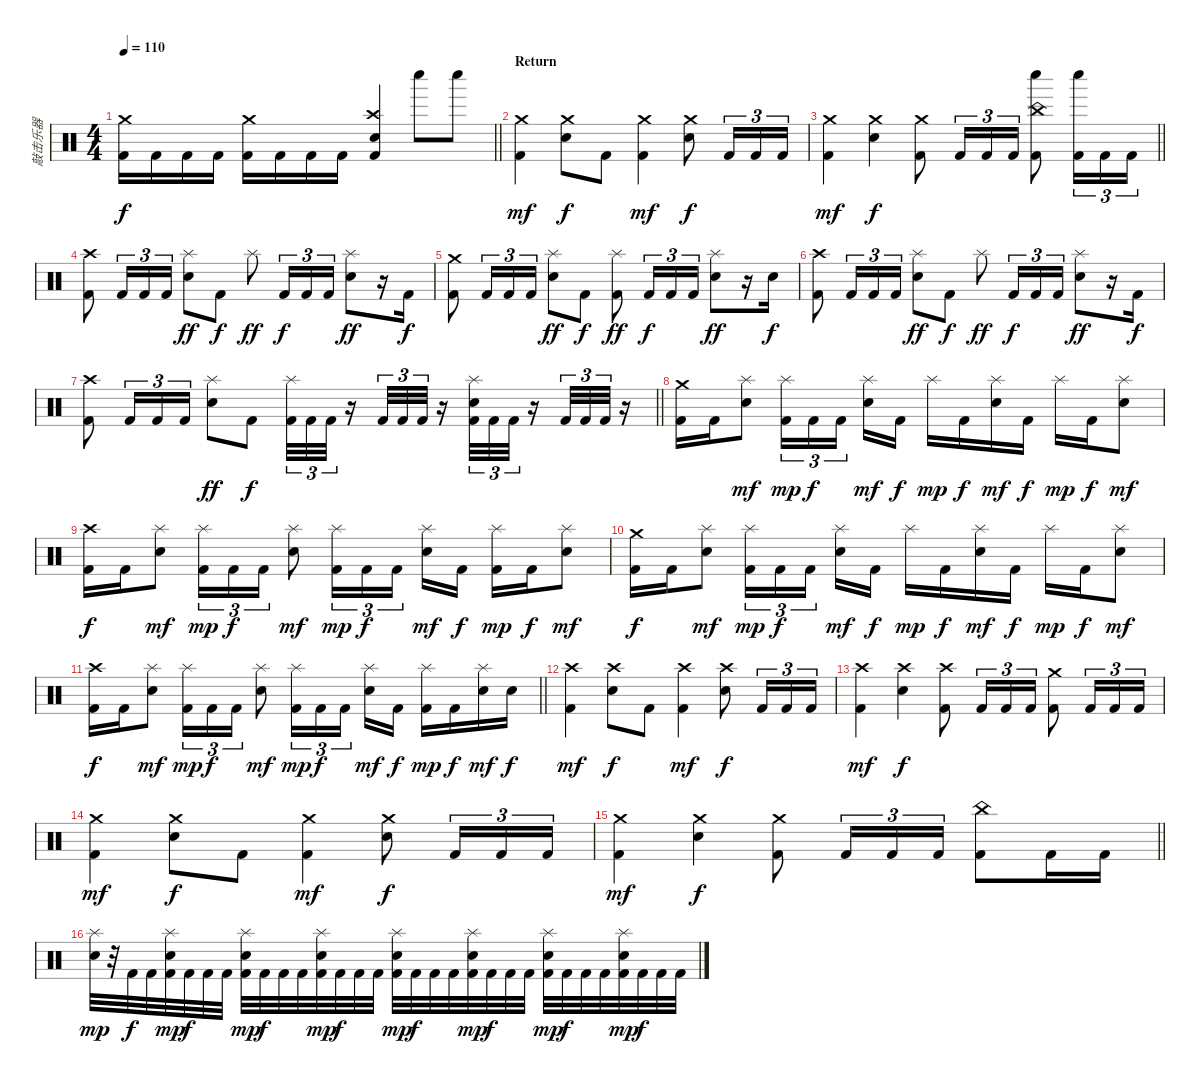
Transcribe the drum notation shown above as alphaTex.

\track ("敲击乐器" "敲击乐器") {instrument percussion}
\staff {score}
\articulation defaults
\ts (4 4)
\tempo 110
\clef neutral
\barLineRight lightlight
\ks c
("Crash medium (hit)" "Kick (hit) 2").16{dy f} "Kick (hit) 2".16 "Kick (hit) 2".16 "Kick (hit) 2".16 ("Crash medium (hit)" "Kick (hit) 2").16 "Kick (hit) 2".16 "Kick (hit) 2".16 "Kick (hit) 2".16 ("Crash high (hit)" "Snare (hit) 2" "Kick (hit) 2").4 "Whistle low (hit)".8 "Whistle low (hit)".8 |
\section ("" "Return")
("Crash medium (hit)" "Kick (hit) 2").4{dy mf} ("Crash medium (hit)" "Snare (hit) 2").8{dy f} "Kick (hit) 2".8 ("Crash medium (hit)" "Kick (hit) 2").4{dy mf} ("Crash medium (hit)" "Snare (hit) 2").8{dy f} "Kick (hit) 2".16{tu (3 2)} "Kick (hit) 2".16{tu (3 2)} "Kick (hit) 2".16{tu (3 2)} |
\barLineRight lightlight
("Crash medium (hit)" "Kick (hit) 2").4{dy mf} ("Crash medium (hit)" "Snare (hit) 2").4{dy f} ("Crash medium (hit)" "Kick (hit) 2").8 "Kick (hit) 2".16{tu (3 2)} "Kick (hit) 2".16{tu (3 2)} "Kick (hit) 2".16{tu (3 2)} ("China (hit)" "Whistle low (hit)" "Kick (hit) 2").8 ("Whistle low (hit)" "Kick (hit) 2").16{tu (3 2)} "Kick (hit) 2".16{tu (3 2)} "Kick (hit) 2".16{tu (3 2)} |
("Crash high (hit)" "Kick (hit) 2").8 "Kick (hit) 2".16{tu (3 2)} "Kick (hit) 2".16{tu (3 2)} "Kick (hit) 2".16{tu (3 2)} ("Splash (hit)" "Snare (hit) 2").8{dy ff} "Kick (hit) 2".8{dy f} "Splash (hit)".8{dy ff} "Kick (hit) 2".16{tu (3 2) dy f} "Kick (hit) 2".16{tu (3 2)} "Kick (hit) 2".16{tu (3 2)} ("Splash (hit)" "Snare (hit) 2").8{dy ff} r.16 "Kick (hit) 2".16{dy f} |
("Crash medium (hit)" "Kick (hit) 2").8 "Kick (hit) 2".16{tu (3 2)} "Kick (hit) 2".16{tu (3 2)} "Kick (hit) 2".16{tu (3 2)} ("Splash (hit)" "Snare (hit) 2").8{dy ff} "Kick (hit) 2".8{dy f} ("Splash (hit)" "Kick (hit) 2").8{dy ff} "Kick (hit) 2".16{tu (3 2) dy f} "Kick (hit) 2".16{tu (3 2)} "Kick (hit) 2".16{tu (3 2)} ("Splash (hit)" "Snare (hit) 2").8{dy ff} r.16 "Snare (hit) 2".16{dy f} |
("Crash high (hit)" "Kick (hit) 2").8 "Kick (hit) 2".16{tu (3 2)} "Kick (hit) 2".16{tu (3 2)} "Kick (hit) 2".16{tu (3 2)} ("Splash (hit)" "Snare (hit) 2").8{dy ff} "Kick (hit) 2".8{dy f} "Splash (hit)".8{dy ff} "Kick (hit) 2".16{tu (3 2) dy f} "Kick (hit) 2".16{tu (3 2)} "Kick (hit) 2".16{tu (3 2)} ("Splash (hit)" "Snare (hit) 2").8{dy ff} r.16 "Kick (hit) 2".16{dy f} |
\barLineRight lightlight
("Crash high (hit)" "Kick (hit) 2").8 "Kick (hit) 2".16{tu (3 2)} "Kick (hit) 2".16{tu (3 2)} "Kick (hit) 2".16{tu (3 2)} ("Splash (hit)" "Snare (hit) 2").8{dy ff} "Kick (hit) 2".8{dy f} ("Splash (hit)" "Kick (hit) 2").32{tu (3 2)} "Kick (hit) 2".32{tu (3 2)} "Kick (hit) 2".32{tu (3 2)} r.16 "Kick (hit) 2".32{tu (3 2)} "Kick (hit) 2".32{tu (3 2)} "Kick (hit) 2".32{tu (3 2)} r.16 ("Splash (hit)" "Snare (hit) 2" "Kick (hit) 2").32{tu (3 2)} "Kick (hit) 2".32{tu (3 2)} "Kick (hit) 2".32{tu (3 2)} r.16 "Kick (hit) 2".32{tu (3 2)} "Kick (hit) 2".32{tu (3 2)} "Kick (hit) 2".32{tu (3 2)} r.16 |
("Crash medium (hit)" "Kick (hit) 2").16 "Kick (hit) 2".16 ("Splash (hit)" "Snare (hit) 2").8{dy mf} ("Splash (hit)" "Kick (hit) 2").16{tu (3 2) dy mp} "Kick (hit) 2".16{tu (3 2) dy f} "Kick (hit) 2".16{tu (3 2) beam splitsecondary} ("Splash (hit)" "Snare (hit) 2").16{dy mf} "Kick (hit) 2".16{dy f} "Splash (hit)".16{dy mp} "Kick (hit) 2".16{dy f} ("Splash (hit)" "Snare (hit) 2").16{dy mf} "Kick (hit) 2".16{dy f} "Splash (hit)".16{dy mp} "Kick (hit) 2".16{dy f} ("Splash (hit)" "Snare (hit) 2").8{dy mf} |
("Crash high (hit)" "Kick (hit) 2").16{dy f} "Kick (hit) 2".16 ("Splash (hit)" "Snare (hit) 2").8{dy mf} ("Splash (hit)" "Kick (hit) 2").16{tu (3 2) dy mp} "Kick (hit) 2".16{tu (3 2) dy f} "Kick (hit) 2".16{tu (3 2)} ("Splash (hit)" "Snare (hit) 2").8{dy mf} ("Splash (hit)" "Kick (hit) 2").16{tu (3 2) dy mp} "Kick (hit) 2".16{tu (3 2) dy f} "Kick (hit) 2".16{tu (3 2) beam splitsecondary} ("Splash (hit)" "Snare (hit) 2").16{dy mf} "Kick (hit) 2".16{dy f} ("Splash (hit)" "Kick (hit) 2").16{dy mp} "Kick (hit) 2".16{dy f} ("Splash (hit)" "Snare (hit) 2").8{dy mf} |
("Crash medium (hit)" "Kick (hit) 2").16{dy f} "Kick (hit) 2".16 ("Splash (hit)" "Snare (hit) 2").8{dy mf} ("Splash (hit)" "Kick (hit) 2").16{tu (3 2) dy mp} "Kick (hit) 2".16{tu (3 2) dy f} "Kick (hit) 2".16{tu (3 2) beam splitsecondary} ("Splash (hit)" "Snare (hit) 2").16{dy mf} "Kick (hit) 2".16{dy f} "Splash (hit)".16{dy mp} "Kick (hit) 2".16{dy f} ("Splash (hit)" "Snare (hit) 2").16{dy mf} "Kick (hit) 2".16{dy f} "Splash (hit)".16{dy mp} "Kick (hit) 2".16{dy f} ("Splash (hit)" "Snare (hit) 2").8{dy mf} |
\barLineRight lightlight
("Crash high (hit)" "Kick (hit) 2").16{dy f} "Kick (hit) 2".16 ("Splash (hit)" "Snare (hit) 2").8{dy mf} ("Splash (hit)" "Kick (hit) 2").16{tu (3 2) dy mp} "Kick (hit) 2".16{tu (3 2) dy f} "Kick (hit) 2".16{tu (3 2)} ("Splash (hit)" "Snare (hit) 2").8{dy mf} ("Splash (hit)" "Kick (hit) 2").16{tu (3 2) dy mp} "Kick (hit) 2".16{tu (3 2) dy f} "Kick (hit) 2".16{tu (3 2) beam splitsecondary} ("Splash (hit)" "Snare (hit) 2").16{dy mf} "Kick (hit) 2".16{dy f} ("Splash (hit)" "Kick (hit) 2").16{dy mp} "Kick (hit) 2".16{dy f} ("Splash (hit)" "Snare (hit) 2").16{dy mf} "Snare (hit) 2".16{dy f} |
("Crash high (hit)" "Kick (hit) 2").4{dy mf} ("Crash high (hit)" "Snare (hit) 2").8{dy f} "Kick (hit) 2".8 ("Crash high (hit)" "Kick (hit) 2").4{dy mf} ("Crash high (hit)" "Snare (hit) 2").8{dy f} "Kick (hit) 2".16{tu (3 2)} "Kick (hit) 2".16{tu (3 2)} "Kick (hit) 2".16{tu (3 2)} |
("Crash high (hit)" "Kick (hit) 2").4{dy mf} ("Crash high (hit)" "Snare (hit) 2").4{dy f} ("Crash high (hit)" "Kick (hit) 2").8 "Kick (hit) 2".16{tu (3 2)} "Kick (hit) 2".16{tu (3 2)} "Kick (hit) 2".16{tu (3 2)} ("Crash medium (hit)" "Kick (hit) 2").8 "Kick (hit) 2".16{tu (3 2)} "Kick (hit) 2".16{tu (3 2)} "Kick (hit) 2".16{tu (3 2)} |
("Crash medium (hit)" "Kick (hit) 2").4{dy mf} ("Crash medium (hit)" "Snare (hit) 2").8{dy f} "Kick (hit) 2".8 ("Crash medium (hit)" "Kick (hit) 2").4{dy mf} ("Crash medium (hit)" "Snare (hit) 2").8{dy f} "Kick (hit) 2".16{tu (3 2)} "Kick (hit) 2".16{tu (3 2)} "Kick (hit) 2".16{tu (3 2)} |
\barLineRight lightlight
("Crash medium (hit)" "Kick (hit) 2").4{dy mf} ("Crash medium (hit)" "Snare (hit) 2").4{dy f} ("Crash medium (hit)" "Kick (hit) 2").8 "Kick (hit) 2".16{tu (3 2)} "Kick (hit) 2".16{tu (3 2)} "Kick (hit) 2".16{tu (3 2)} ("China (hit)" "Kick (hit) 2").8 "Kick (hit) 2".16 "Kick (hit) 2".16 |
("Splash (hit)" "Snare (hit) 2").32{dy mp} r.32 "Kick (hit) 2".32{dy f} "Kick (hit) 2".32 ("Splash (hit)" "Snare (hit) 2" "Kick (hit) 2").32{dy mp} "Kick (hit) 2".32{dy f} "Kick (hit) 2".32 "Kick (hit) 2".32 ("Splash (hit)" "Snare (hit) 2" "Kick (hit) 2").32{dy mp} "Kick (hit) 2".32{dy f} "Kick (hit) 2".32 "Kick (hit) 2".32 ("Splash (hit)" "Snare (hit) 2" "Kick (hit) 2").32{dy mp} "Kick (hit) 2".32{dy f} "Kick (hit) 2".32 "Kick (hit) 2".32 ("Splash (hit)" "Snare (hit) 2" "Kick (hit) 2").32{dy mp} "Kick (hit) 2".32{dy f} "Kick (hit) 2".32 "Kick (hit) 2".32 ("Splash (hit)" "Snare (hit) 2" "Kick (hit) 2").32{dy mp} "Kick (hit) 2".32{dy f} "Kick (hit) 2".32 "Kick (hit) 2".32 ("Splash (hit)" "Snare (hit) 2" "Kick (hit) 2").32{dy mp} "Kick (hit) 2".32{dy f} "Kick (hit) 2".32 "Kick (hit) 2".32 ("Splash (hit)" "Snare (hit) 2" "Kick (hit) 2").32{dy mp} "Kick (hit) 2".32{dy f} "Kick (hit) 2".32 "Kick (hit) 2".32
